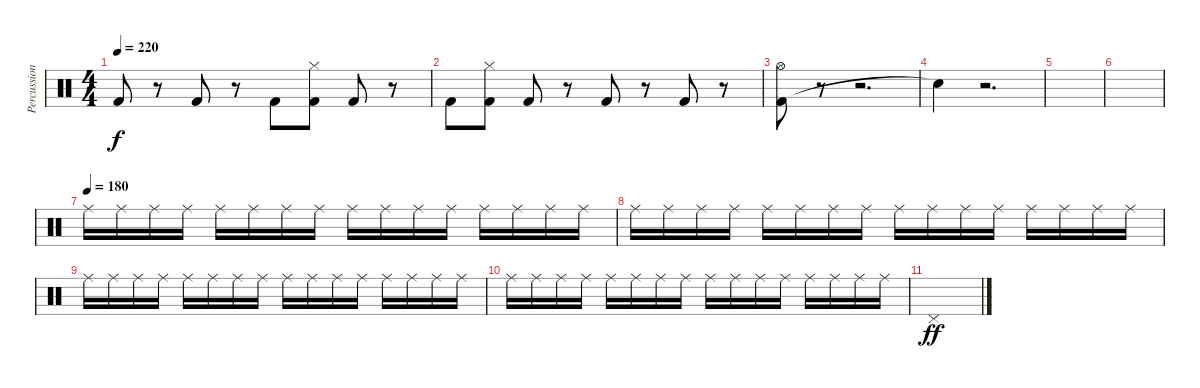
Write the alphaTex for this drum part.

\track ("Percussion" "Percussion") {instrument percussion}
\staff {score}
\articulation defaults
\ts (4 4)
\tempo 220
\clef neutral
\ks c "Kick (hit) 2".8{dy f}
r.8 "Kick (hit) 2".8 r.8 "Kick (hit) 2".8 ("Kick (hit) 2" "Hi-Hat (closed)").8 "Kick (hit) 2".8 r.8 |
"Kick (hit) 2".8 ("Kick (hit) 2" "Hi-Hat (closed)").8 "Kick (hit) 2".8 r.8 "Kick (hit) 2".8 r.8 "Kick (hit) 2".8 r.8 |
("Kick (hit) 2" "Hi-Hat (open)").8 r.8 r.2{d} |
"Snare (hit)"{t}.4 r.2{d} |
|
|
\tempo (180)
"Ride (middle)".16{volume 7} "Ride (middle)".16 "Ride (middle)".16 "Ride (middle)".16 "Ride (middle)".16 "Ride (middle)".16 "Ride (middle)".16 "Ride (middle)".16 "Ride (middle)".16 "Ride (middle)".16 "Ride (middle)".16 "Ride (middle)".16 "Ride (middle)".16 "Ride (middle)".16 "Ride (middle)".16 "Ride (middle)".16 |
"Ride (middle)".16{volume 9} "Ride (middle)".16 "Ride (middle)".16 "Ride (middle)".16 "Ride (middle)".16 "Ride (middle)".16 "Ride (middle)".16 "Ride (middle)".16 "Ride (middle)".16 "Ride (middle)".16 "Ride (middle)".16 "Ride (middle)".16 "Ride (middle)".16 "Ride (middle)".16 "Ride (middle)".16 "Ride (middle)".16 |
"Ride (middle)".16 "Ride (middle)".16 "Ride (middle)".16 "Ride (middle)".16 "Ride (middle)".16 "Ride (middle)".16 "Ride (middle)".16 "Ride (middle)".16 "Ride (middle)".16 "Ride (middle)".16 "Ride (middle)".16 "Ride (middle)".16 "Ride (middle)".16 "Ride (middle)".16 "Ride (middle)".16 "Ride (middle)".16 |
"Ride (middle)".16 "Ride (middle)".16 "Ride (middle)".16 "Ride (middle)".16 "Ride (middle)".16 "Ride (middle)".16 "Ride (middle)".16 "Ride (middle)".16 "Ride (middle)".16 "Ride (middle)".16 "Ride (middle)".16 "Ride (middle)".16 "Ride (middle)".16 "Ride (middle)".16 "Ride (middle)".16 "Ride (middle)".16 |
"Pedal Hi-Hat (hit)".1{dy ff}
